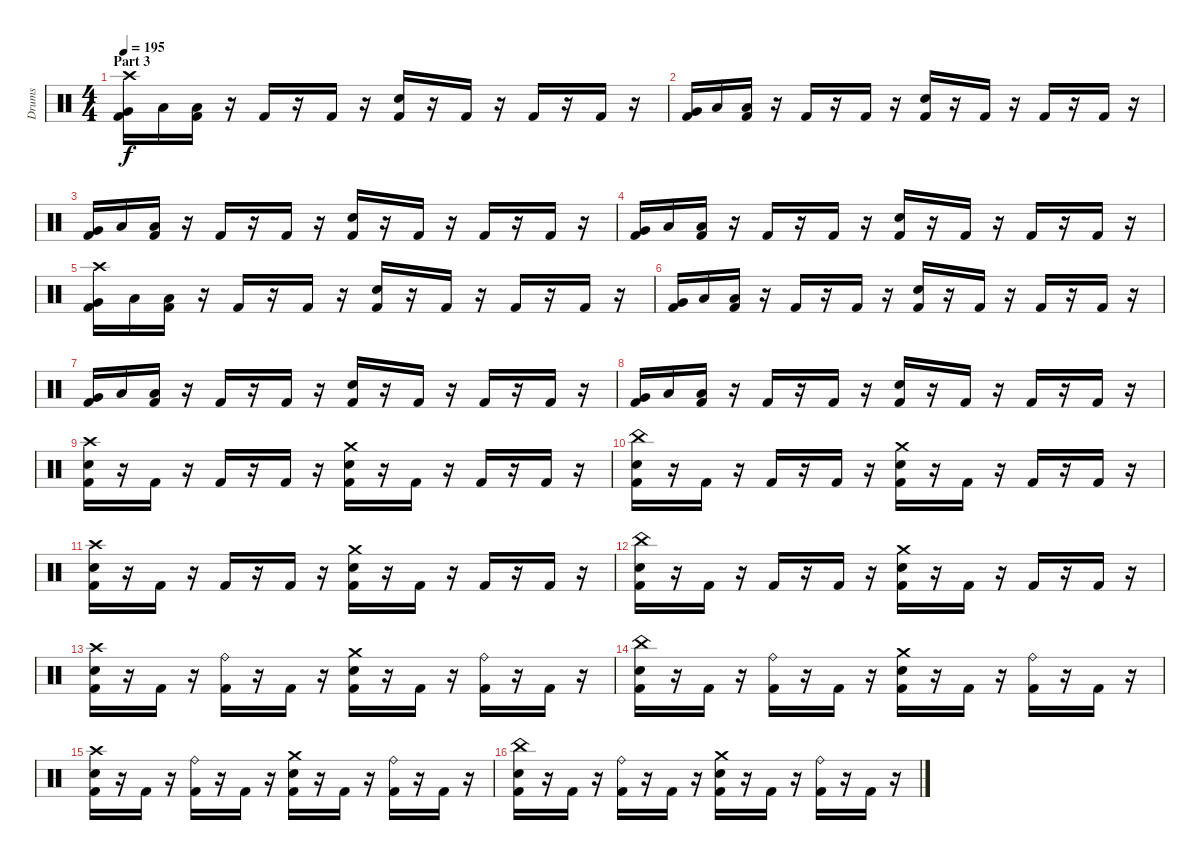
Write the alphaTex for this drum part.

\track ("Drums" "Drums") {instrument percussion}
\staff {score}
\articulation defaults
\ts (4 4)
\section ("" "Part 3")
\tempo 195
\clef neutral
\ks c
("Crash high (hit)" "Very Low Tom (hit)" "Kick (hit) 2").16{dy f} "Low Floor Tom (hit)".16 ("Low Floor Tom (hit)" "Kick (hit) 2").16 r.16 "Kick (hit) 2".16 r.16 "Kick (hit) 2".16 r.16 ("Electric Snare (hit)" "Kick (hit) 2").16 r.16 "Kick (hit) 2".16 r.16 "Kick (hit) 2".16 r.16 "Kick (hit) 2".16 r.16 |
("Very Low Tom (hit)" "Kick (hit) 2").16 "Low Floor Tom (hit)".16 ("Low Floor Tom (hit)" "Kick (hit) 2").16 r.16 "Kick (hit) 2".16 r.16 "Kick (hit) 2".16 r.16 ("Electric Snare (hit)" "Kick (hit) 2").16 r.16 "Kick (hit) 2".16 r.16 "Kick (hit) 2".16 r.16 "Kick (hit) 2".16 r.16 |
("Very Low Tom (hit)" "Kick (hit) 2").16 "Low Floor Tom (hit)".16 ("Low Floor Tom (hit)" "Kick (hit) 2").16 r.16 "Kick (hit) 2".16 r.16 "Kick (hit) 2".16 r.16 ("Electric Snare (hit)" "Kick (hit) 2").16 r.16 "Kick (hit) 2".16 r.16 "Kick (hit) 2".16 r.16 "Kick (hit) 2".16 r.16 |
("Very Low Tom (hit)" "Kick (hit) 2").16 "Low Floor Tom (hit)".16 ("Low Floor Tom (hit)" "Kick (hit) 2").16 r.16 "Kick (hit) 2".16 r.16 "Kick (hit) 2".16 r.16 ("Electric Snare (hit)" "Kick (hit) 2").16 r.16 "Kick (hit) 2".16 r.16 "Kick (hit) 2".16 r.16 "Kick (hit) 2".16 r.16 |
("Crash high (hit)" "Very Low Tom (hit)" "Kick (hit) 2").16 "Low Floor Tom (hit)".16 ("Low Floor Tom (hit)" "Kick (hit) 2").16 r.16 "Kick (hit) 2".16 r.16 "Kick (hit) 2".16 r.16 ("Electric Snare (hit)" "Kick (hit) 2").16 r.16 "Kick (hit) 2".16 r.16 "Kick (hit) 2".16 r.16 "Kick (hit) 2".16 r.16 |
("Very Low Tom (hit)" "Kick (hit) 2").16 "Low Floor Tom (hit)".16 ("Low Floor Tom (hit)" "Kick (hit) 2").16 r.16 "Kick (hit) 2".16 r.16 "Kick (hit) 2".16 r.16 ("Electric Snare (hit)" "Kick (hit) 2").16 r.16 "Kick (hit) 2".16 r.16 "Kick (hit) 2".16 r.16 "Kick (hit) 2".16 r.16 |
("Very Low Tom (hit)" "Kick (hit) 2").16 "Low Floor Tom (hit)".16 ("Low Floor Tom (hit)" "Kick (hit) 2").16 r.16 "Kick (hit) 2".16 r.16 "Kick (hit) 2".16 r.16 ("Electric Snare (hit)" "Kick (hit) 2").16 r.16 "Kick (hit) 2".16 r.16 "Kick (hit) 2".16 r.16 "Kick (hit) 2".16 r.16 |
("Very Low Tom (hit)" "Kick (hit) 2").16 "Low Floor Tom (hit)".16 ("Low Floor Tom (hit)" "Kick (hit) 2").16 r.16 "Kick (hit) 2".16 r.16 "Kick (hit) 2".16 r.16 ("Electric Snare (hit)" "Kick (hit) 2").16 r.16 "Kick (hit) 2".16 r.16 "Kick (hit) 2".16 r.16 "Kick (hit) 2".16 r.16 |
("Crash high (hit)" "Electric Snare (hit)" "Kick (hit) 2").16 r.16 "Kick (hit) 2".16 r.16 "Kick (hit) 2".16 r.16 "Kick (hit) 2".16 r.16 ("Crash medium (hit)" "Electric Snare (hit)" "Kick (hit) 2").16 r.16 "Kick (hit) 2".16 r.16 "Kick (hit) 2".16 r.16 "Kick (hit) 2".16 r.16 |
("China (hit)" "Electric Snare (hit)" "Kick (hit) 2").16 r.16 "Kick (hit) 2".16 r.16 "Kick (hit) 2".16 r.16 "Kick (hit) 2".16 r.16 ("Crash medium (hit)" "Electric Snare (hit)" "Kick (hit) 2").16 r.16 "Kick (hit) 2".16 r.16 "Kick (hit) 2".16 r.16 "Kick (hit) 2".16 r.16 |
("Crash high (hit)" "Electric Snare (hit)" "Kick (hit) 2").16 r.16 "Kick (hit) 2".16 r.16 "Kick (hit) 2".16 r.16 "Kick (hit) 2".16 r.16 ("Crash medium (hit)" "Electric Snare (hit)" "Kick (hit) 2").16 r.16 "Kick (hit) 2".16 r.16 "Kick (hit) 2".16 r.16 "Kick (hit) 2".16 r.16 |
("China (hit)" "Electric Snare (hit)" "Kick (hit) 2").16 r.16 "Kick (hit) 2".16 r.16 "Kick (hit) 2".16 r.16 "Kick (hit) 2".16 r.16 ("Crash medium (hit)" "Electric Snare (hit)" "Kick (hit) 2").16 r.16 "Kick (hit) 2".16 r.16 "Kick (hit) 2".16 r.16 "Kick (hit) 2".16 r.16 |
("Crash high (hit)" "Electric Snare (hit)" "Kick (hit) 2").16 r.16 "Kick (hit) 2".16 r.16 ("Ride (bell)" "Kick (hit) 2").16 r.16 "Kick (hit) 2".16 r.16 ("Crash medium (hit)" "Electric Snare (hit)" "Kick (hit) 2").16 r.16 "Kick (hit) 2".16 r.16 ("Ride (bell)" "Kick (hit) 2").16 r.16 "Kick (hit) 2".16 r.16 |
("China (hit)" "Electric Snare (hit)" "Kick (hit) 2").16 r.16 "Kick (hit) 2".16 r.16 ("Ride (bell)" "Kick (hit) 2").16 r.16 "Kick (hit) 2".16 r.16 ("Crash medium (hit)" "Electric Snare (hit)" "Kick (hit) 2").16 r.16 "Kick (hit) 2".16 r.16 ("Ride (bell)" "Kick (hit) 2").16 r.16 "Kick (hit) 2".16 r.16 |
("Crash high (hit)" "Electric Snare (hit)" "Kick (hit) 2").16 r.16 "Kick (hit) 2".16 r.16 ("Ride (bell)" "Kick (hit) 2").16 r.16 "Kick (hit) 2".16 r.16 ("Crash medium (hit)" "Electric Snare (hit)" "Kick (hit) 2").16 r.16 "Kick (hit) 2".16 r.16 ("Ride (bell)" "Kick (hit) 2").16 r.16 "Kick (hit) 2".16 r.16 |
("China (hit)" "Electric Snare (hit)" "Kick (hit) 2").16 r.16 "Kick (hit) 2".16 r.16 ("Ride (bell)" "Kick (hit) 2").16 r.16 "Kick (hit) 2".16 r.16 ("Crash medium (hit)" "Electric Snare (hit)" "Kick (hit) 2").16 r.16 "Kick (hit) 2".16 r.16 ("Ride (bell)" "Kick (hit) 2").16 r.16 "Kick (hit) 2".16 r.16
